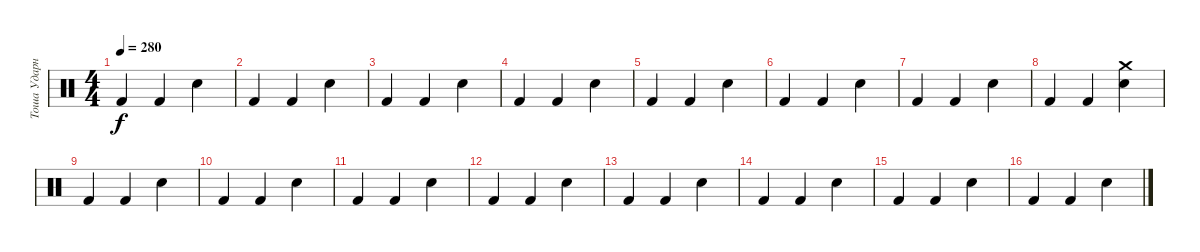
\track ("Тоша Ударные" "Тоша Ударн") {instrument percussion}
\staff {score}
\articulation defaults
\ts (4 4)
\tempo 280
\clef neutral
\ks c "Kick (hit) 2".4{dy f} "Kick (hit) 2".4 "Electric Snare (hit)".4
|
"Kick (hit) 2".4 "Kick (hit) 2".4 "Electric Snare (hit)".4 |
"Kick (hit) 2".4 "Kick (hit) 2".4 "Electric Snare (hit)".4 |
"Kick (hit) 2".4 "Kick (hit) 2".4 "Electric Snare (hit)".4 |
"Kick (hit) 2".4 "Kick (hit) 2".4 "Electric Snare (hit)".4 |
"Kick (hit) 2".4 "Kick (hit) 2".4 "Electric Snare (hit)".4 |
"Kick (hit) 2".4 "Kick (hit) 2".4 "Electric Snare (hit)".4 |
"Kick (hit) 2".4 "Kick (hit) 2".4 ("Electric Snare (hit)" "Crash medium (hit)").4 |
"Kick (hit) 2".4 "Kick (hit) 2".4 "Electric Snare (hit)".4 |
"Kick (hit) 2".4 "Kick (hit) 2".4 "Electric Snare (hit)".4 |
"Kick (hit) 2".4 "Kick (hit) 2".4 "Electric Snare (hit)".4 |
"Kick (hit) 2".4 "Kick (hit) 2".4 "Electric Snare (hit)".4 |
"Kick (hit) 2".4 "Kick (hit) 2".4 "Electric Snare (hit)".4 |
"Kick (hit) 2".4 "Kick (hit) 2".4 "Electric Snare (hit)".4 |
"Kick (hit) 2".4 "Kick (hit) 2".4 "Electric Snare (hit)".4 |
"Kick (hit) 2".4 "Kick (hit) 2".4 "Electric Snare (hit)".4
